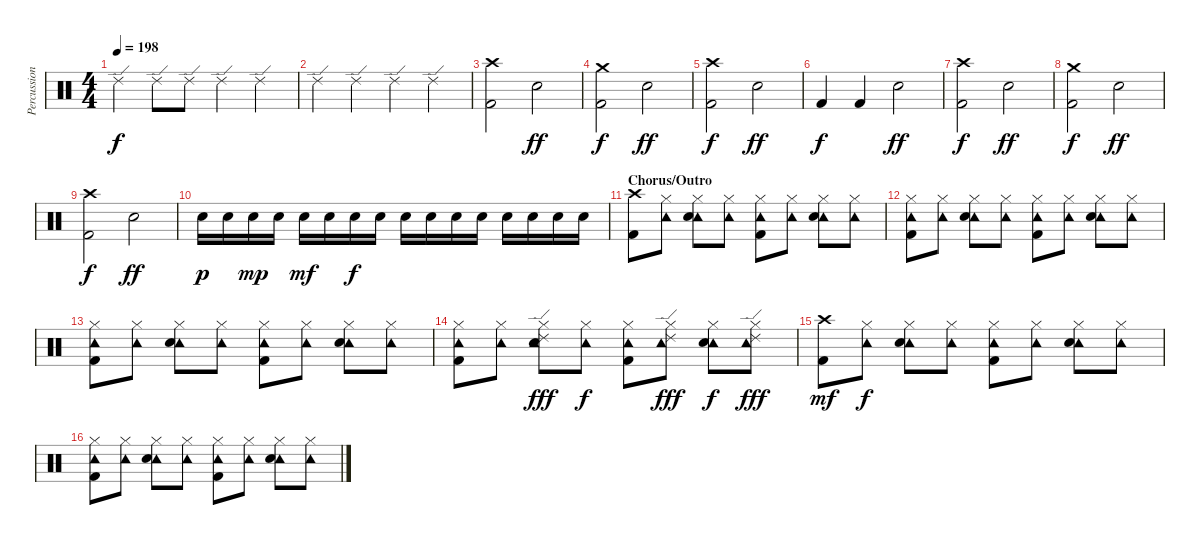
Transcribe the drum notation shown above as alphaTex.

\track ("Percussion" "Percussion") {instrument percussion}
\staff {score}
\articulation defaults
\ts (4 4)
\tempo 198
\clef neutral
\ks c "Ride (edge) 2".4{dy f} "Ride (edge) 2".8 "Ride (edge) 2".8 "Ride (edge) 2".4 "Ride (edge) 2".4
|
"Ride (edge) 2".4 "Ride (edge) 2".4 "Ride (edge) 2".4 "Ride (edge) 2".4 |
("Crash high (hit)" "Kick (hit) 2").2{volume 11} "Electric Snare (hit)".2{dy ff} |
("Crash medium (hit)" "Kick (hit) 2").2{dy f} "Electric Snare (hit)".2{dy ff} |
("Crash high (hit)" "Kick (hit) 2").2{dy f} "Electric Snare (hit)".2{dy ff} |
"Kick (hit) 2".4{dy f} "Kick (hit) 2".4 "Electric Snare (hit)".2{dy ff} |
("Crash high (hit)" "Kick (hit) 2").2{dy f} "Electric Snare (hit)".2{dy ff} |
("Crash medium (hit)" "Kick (hit) 2").2{dy f} "Electric Snare (hit)".2{dy ff} |
("Crash high (hit)" "Kick (hit) 2").2{dy f} "Electric Snare (hit)".2{dy ff} |
"Snare (hit) 2".16{dy p} "Snare (hit) 2".16 "Snare (hit) 2".16{dy mp} "Snare (hit) 2".16 "Snare (hit) 2".16{dy mf} "Snare (hit) 2".16 "Snare (hit) 2".16{dy f} "Snare (hit) 2".16 "Snare (hit) 2".16 "Snare (hit) 2".16 "Snare (hit) 2".16 "Snare (hit) 2".16 "Snare (hit) 2".16 "Snare (hit) 2".16 "Snare (hit) 2".16 "Snare (hit) 2".16 |
\section ("" "Chorus/Outro")
("Crash high (hit)" "Kick (hit) 2").8 ("Tambourine (hit)" "Hi-Hat (closed)").8 ("Tambourine (hit)" "Hi-Hat (closed)" "Electric Snare (hit)").8 ("Tambourine (hit)" "Hi-Hat (closed)").8 ("Tambourine (hit)" "Hi-Hat (closed)" "Kick (hit) 2").8 ("Tambourine (hit)" "Hi-Hat (closed)").8 ("Tambourine (hit)" "Hi-Hat (closed)" "Electric Snare (hit)").8 ("Tambourine (hit)" "Hi-Hat (closed)").8 |
("Tambourine (hit)" "Hi-Hat (closed)" "Kick (hit) 2").8 ("Tambourine (hit)" "Hi-Hat (closed)").8 ("Tambourine (hit)" "Hi-Hat (closed)" "Electric Snare (hit)").8 ("Tambourine (hit)" "Hi-Hat (closed)").8 ("Tambourine (hit)" "Hi-Hat (closed)" "Kick (hit) 2").8 ("Tambourine (hit)" "Hi-Hat (closed)").8 ("Tambourine (hit)" "Hi-Hat (closed)" "Electric Snare (hit)").8 ("Tambourine (hit)" "Hi-Hat (closed)").8 |
("Tambourine (hit)" "Hi-Hat (closed)" "Kick (hit) 2").8 ("Tambourine (hit)" "Hi-Hat (closed)").8 ("Tambourine (hit)" "Hi-Hat (closed)" "Electric Snare (hit)").8 ("Tambourine (hit)" "Hi-Hat (closed)").8 ("Tambourine (hit)" "Hi-Hat (closed)" "Kick (hit) 2").8 ("Tambourine (hit)" "Hi-Hat (closed)").8 ("Tambourine (hit)" "Hi-Hat (closed)" "Electric Snare (hit)").8 ("Tambourine (hit)" "Hi-Hat (closed)").8 |
("Tambourine (hit)" "Hi-Hat (closed)" "Kick (hit) 2").8 ("Tambourine (hit)" "Hi-Hat (closed)").8 ("Ride (edge) 2" "Tambourine (hit)" "Hi-Hat (closed)" "Electric Snare (hit)").8{dy fff} ("Tambourine (hit)" "Hi-Hat (closed)").8{dy f} ("Tambourine (hit)" "Hi-Hat (closed)" "Kick (hit) 2").8 ("Ride (edge) 2" "Tambourine (hit)" "Hi-Hat (closed)").8{dy fff} ("Tambourine (hit)" "Hi-Hat (closed)" "Electric Snare (hit)").8{dy f} ("Ride (edge) 2" "Tambourine (hit)" "Hi-Hat (closed)").8{dy fff} |
("Crash high (hit)" "Kick (hit) 2").8{dy mf} ("Tambourine (hit)" "Hi-Hat (closed)").8{dy f} ("Tambourine (hit)" "Hi-Hat (closed)" "Electric Snare (hit)").8 ("Tambourine (hit)" "Hi-Hat (closed)").8 ("Tambourine (hit)" "Hi-Hat (closed)" "Kick (hit) 2").8 ("Tambourine (hit)" "Hi-Hat (closed)").8 ("Tambourine (hit)" "Hi-Hat (closed)" "Electric Snare (hit)").8 ("Tambourine (hit)" "Hi-Hat (closed)").8 |
("Tambourine (hit)" "Hi-Hat (closed)" "Kick (hit) 2").8 ("Tambourine (hit)" "Hi-Hat (closed)").8 ("Tambourine (hit)" "Hi-Hat (closed)" "Electric Snare (hit)").8 ("Tambourine (hit)" "Hi-Hat (closed)").8 ("Tambourine (hit)" "Hi-Hat (closed)" "Kick (hit) 2").8 ("Tambourine (hit)" "Hi-Hat (closed)").8 ("Tambourine (hit)" "Hi-Hat (closed)" "Electric Snare (hit)").8 ("Tambourine (hit)" "Hi-Hat (closed)").8
